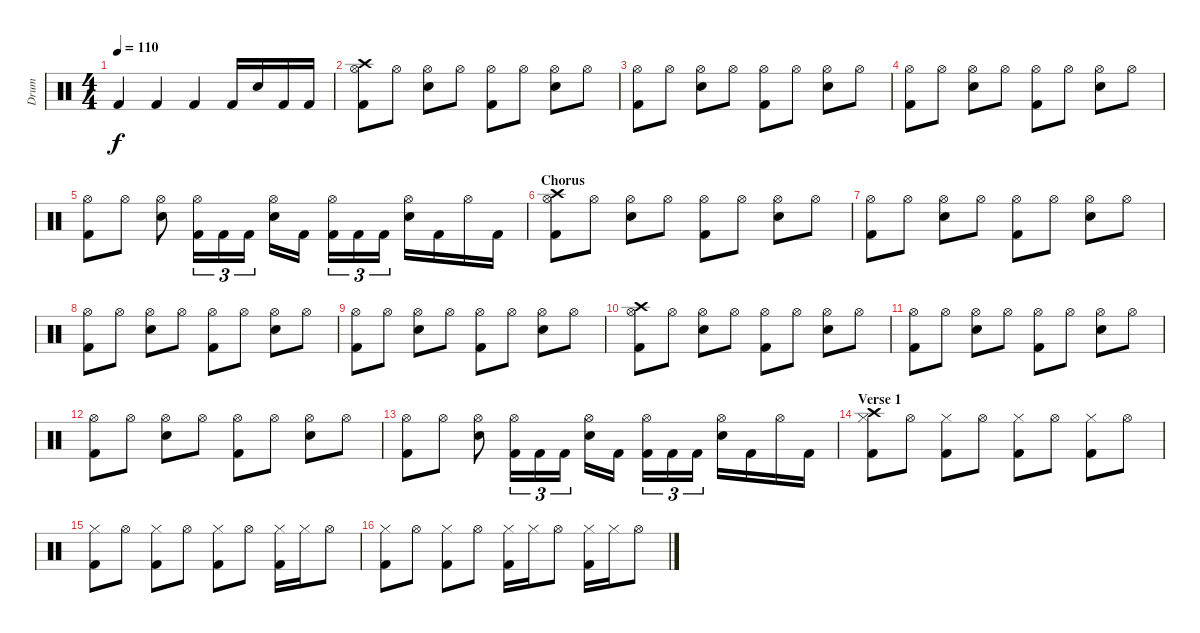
\track ("Drum" "Drum") {instrument percussion}
\staff {score}
\articulation defaults
\ts (4 4)
\tempo 110
\clef neutral
\ks c "Kick (hit) 2".4{dy f} "Kick (hit) 2".4 "Kick (hit) 2".4 "Kick (hit) 2".16 "Electric Snare (hit)".16 "Kick (hit) 2".16 "Kick (hit) 2".16
|
("Crash high (hit)" "Hi-Hat (open)" "Kick (hit) 2").8 "Hi-Hat (open)".8 ("Hi-Hat (open)" "Electric Snare (hit)").8 "Hi-Hat (open)".8 ("Hi-Hat (open)" "Kick (hit) 2").8 "Hi-Hat (open)".8 ("Hi-Hat (open)" "Electric Snare (hit)").8 "Hi-Hat (open)".8 |
("Hi-Hat (open)" "Kick (hit) 2").8 "Hi-Hat (open)".8 ("Hi-Hat (open)" "Electric Snare (hit)").8 "Hi-Hat (open)".8 ("Hi-Hat (open)" "Kick (hit) 2").8 "Hi-Hat (open)".8 ("Hi-Hat (open)" "Electric Snare (hit)").8 "Hi-Hat (open)".8 |
("Hi-Hat (open)" "Kick (hit) 2").8 "Hi-Hat (open)".8 ("Hi-Hat (open)" "Electric Snare (hit)").8 "Hi-Hat (open)".8 ("Hi-Hat (open)" "Kick (hit) 2").8 "Hi-Hat (open)".8 ("Hi-Hat (open)" "Electric Snare (hit)").8 "Hi-Hat (open)".8 |
("Hi-Hat (open)" "Kick (hit) 2").8 "Hi-Hat (open)".8 ("Hi-Hat (open)" "Electric Snare (hit)").8 ("Hi-Hat (open)" "Kick (hit) 2").16{tu (3 2)} "Kick (hit) 2".16{tu (3 2)} "Kick (hit) 2".16{tu (3 2)} ("Hi-Hat (open)" "Electric Snare (hit)").16 "Kick (hit) 2".16 ("Hi-Hat (open)" "Kick (hit) 2").16{tu (3 2)} "Kick (hit) 2".16{tu (3 2)} "Kick (hit) 2".16{tu (3 2)} ("Hi-Hat (open)" "Electric Snare (hit)").16 "Kick (hit) 2".16 "Hi-Hat (open)".16 "Kick (hit) 2".16 |
\section ("" "Chorus")
("Crash high (hit)" "Hi-Hat (open)" "Kick (hit) 2").8 "Hi-Hat (open)".8 ("Hi-Hat (open)" "Electric Snare (hit)").8 "Hi-Hat (open)".8 ("Hi-Hat (open)" "Kick (hit) 2").8 "Hi-Hat (open)".8 ("Hi-Hat (open)" "Electric Snare (hit)").8 "Hi-Hat (open)".8 |
("Hi-Hat (open)" "Kick (hit) 2").8 "Hi-Hat (open)".8 ("Hi-Hat (open)" "Electric Snare (hit)").8 "Hi-Hat (open)".8 ("Hi-Hat (open)" "Kick (hit) 2").8 "Hi-Hat (open)".8 ("Hi-Hat (open)" "Electric Snare (hit)").8 "Hi-Hat (open)".8 |
("Hi-Hat (open)" "Kick (hit) 2").8 "Hi-Hat (open)".8 ("Hi-Hat (open)" "Electric Snare (hit)").8 "Hi-Hat (open)".8 ("Hi-Hat (open)" "Kick (hit) 2").8 "Hi-Hat (open)".8 ("Hi-Hat (open)" "Electric Snare (hit)").8 "Hi-Hat (open)".8 |
("Hi-Hat (open)" "Kick (hit) 2").8 "Hi-Hat (open)".8 ("Hi-Hat (open)" "Electric Snare (hit)").8 "Hi-Hat (open)".8 ("Hi-Hat (open)" "Kick (hit) 2").8 "Hi-Hat (open)".8 ("Hi-Hat (open)" "Electric Snare (hit)").8 "Hi-Hat (open)".8 |
("Crash high (hit)" "Hi-Hat (open)" "Kick (hit) 2").8 "Hi-Hat (open)".8 ("Hi-Hat (open)" "Electric Snare (hit)").8 "Hi-Hat (open)".8 ("Hi-Hat (open)" "Kick (hit) 2").8 "Hi-Hat (open)".8 ("Hi-Hat (open)" "Electric Snare (hit)").8 "Hi-Hat (open)".8 |
("Hi-Hat (open)" "Kick (hit) 2").8 "Hi-Hat (open)".8 ("Hi-Hat (open)" "Electric Snare (hit)").8 "Hi-Hat (open)".8 ("Hi-Hat (open)" "Kick (hit) 2").8 "Hi-Hat (open)".8 ("Hi-Hat (open)" "Electric Snare (hit)").8 "Hi-Hat (open)".8 |
("Hi-Hat (open)" "Kick (hit) 2").8 "Hi-Hat (open)".8 ("Hi-Hat (open)" "Electric Snare (hit)").8 "Hi-Hat (open)".8 ("Hi-Hat (open)" "Kick (hit) 2").8 "Hi-Hat (open)".8 ("Hi-Hat (open)" "Electric Snare (hit)").8 "Hi-Hat (open)".8 |
("Hi-Hat (open)" "Kick (hit) 2").8 "Hi-Hat (open)".8 ("Hi-Hat (open)" "Electric Snare (hit)").8 ("Hi-Hat (open)" "Kick (hit) 2").16{tu (3 2)} "Kick (hit) 2".16{tu (3 2)} "Kick (hit) 2".16{tu (3 2)} ("Hi-Hat (open)" "Electric Snare (hit)").16 "Kick (hit) 2".16 ("Hi-Hat (open)" "Kick (hit) 2").16{tu (3 2)} "Kick (hit) 2".16{tu (3 2)} "Kick (hit) 2".16{tu (3 2)} ("Hi-Hat (open)" "Electric Snare (hit)").16 "Kick (hit) 2".16 "Hi-Hat (open)".16 "Kick (hit) 2".16 |
\section ("" "Verse 1")
("Crash high (hit)" "Hi-Hat (closed)" "Kick (hit) 2").8 "Hi-Hat (open)".8 ("Hi-Hat (closed)" "Kick (hit) 2").8 "Hi-Hat (open)".8 ("Hi-Hat (closed)" "Kick (hit) 2").8 "Hi-Hat (open)".8 ("Hi-Hat (closed)" "Kick (hit) 2").8 "Hi-Hat (open)".8 |
("Hi-Hat (closed)" "Kick (hit) 2").8 "Hi-Hat (open)".8 ("Hi-Hat (closed)" "Kick (hit) 2").8 "Hi-Hat (open)".8 ("Hi-Hat (closed)" "Kick (hit) 2").8 "Hi-Hat (open)".8 ("Hi-Hat (closed)" "Kick (hit) 2").16 "Hi-Hat (closed)".16 "Hi-Hat (open)".8 |
("Hi-Hat (closed)" "Kick (hit) 2").8 "Hi-Hat (open)".8 ("Hi-Hat (closed)" "Kick (hit) 2").8 "Hi-Hat (open)".8 ("Hi-Hat (closed)" "Kick (hit) 2").16 "Hi-Hat (closed)".16 "Hi-Hat (open)".8 ("Hi-Hat (closed)" "Kick (hit) 2").16 "Hi-Hat (closed)".16 "Hi-Hat (open)".8
